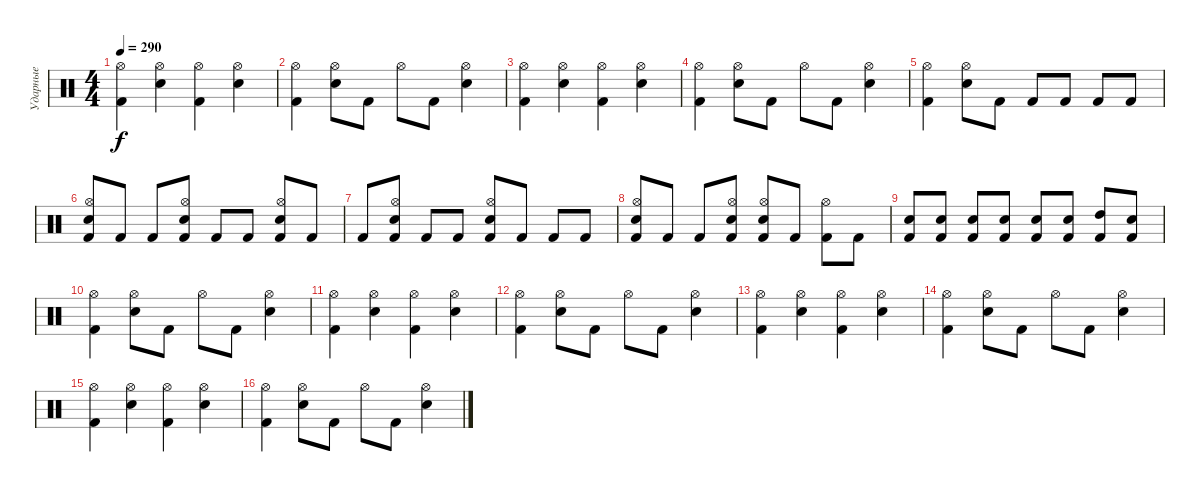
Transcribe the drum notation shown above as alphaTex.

\track ("Ударные" "Ударные") {instrument percussion}
\staff {score}
\articulation defaults
\ts (4 4)
\tempo 290
\clef neutral
\ks c
("Kick (hit) 2" "Hi-Hat (open)").4{dy f} ("Snare (hit) 2" "Hi-Hat (open)").4 ("Kick (hit) 2" "Hi-Hat (open)").4 ("Snare (hit) 2" "Hi-Hat (open)").4 |
("Kick (hit) 2" "Hi-Hat (open)").4 ("Snare (hit) 2" "Hi-Hat (open)").8 "Kick (hit) 2".8 "Hi-Hat (open)".8 "Kick (hit) 2".8 ("Snare (hit) 2" "Hi-Hat (open)").4 |
("Kick (hit) 2" "Hi-Hat (open)").4 ("Snare (hit) 2" "Hi-Hat (open)").4 ("Kick (hit) 2" "Hi-Hat (open)").4 ("Snare (hit) 2" "Hi-Hat (open)").4 |
("Kick (hit) 2" "Hi-Hat (open)").4 ("Snare (hit) 2" "Hi-Hat (open)").8 "Kick (hit) 2".8 "Hi-Hat (open)".8 "Kick (hit) 2".8 ("Snare (hit) 2" "Hi-Hat (open)").4 |
("Kick (hit) 2" "Hi-Hat (open)").4 ("Snare (hit) 2" "Hi-Hat (open)").8 "Kick (hit) 2".8 "Kick (hit) 2".8 "Kick (hit) 2".8 "Kick (hit) 2".8 "Kick (hit) 2".8 |
("Kick (hit) 2" "Snare (hit) 2" "Hi-Hat (open)").8 "Kick (hit) 2".8 "Kick (hit) 2".8 ("Kick (hit) 2" "Snare (hit) 2" "Hi-Hat (open)").8 "Kick (hit) 2".8 "Kick (hit) 2".8 ("Kick (hit) 2" "Snare (hit) 2" "Hi-Hat (open)").8 "Kick (hit) 2".8 |
"Kick (hit) 2".8 ("Kick (hit) 2" "Snare (hit) 2" "Hi-Hat (open)").8 "Kick (hit) 2".8 "Kick (hit) 2".8 ("Kick (hit) 2" "Snare (hit) 2" "Hi-Hat (open)").8 "Kick (hit) 2".8 "Kick (hit) 2".8 "Kick (hit) 2".8 |
("Kick (hit) 2" "Snare (hit) 2" "Hi-Hat (open)").8 "Kick (hit) 2".8 "Kick (hit) 2".8 ("Kick (hit) 2" "Snare (hit) 2" "Hi-Hat (open)").8 ("Kick (hit) 2" "Snare (hit) 2" "Hi-Hat (open)").8 "Kick (hit) 2".8 ("Kick (hit) 2" "Hi-Hat (open)").8 "Kick (hit) 2".8 |
("Kick (hit) 2" "Snare (hit) 2").8 ("Kick (hit) 2" "Snare (hit) 2").8 ("Kick (hit) 2" "Snare (hit) 2").8 ("Kick (hit) 2" "Snare (hit) 2").8 ("Kick (hit) 2" "Snare (hit) 2").8 ("Kick (hit) 2" "Snare (hit) 2").8 ("Kick (hit) 2" "High Tom (hit)").8 ("Kick (hit) 2" "Snare (hit) 2").8 |
("Kick (hit) 2" "Hi-Hat (open)").4 ("Snare (hit) 2" "Hi-Hat (open)").8 "Kick (hit) 2".8 "Hi-Hat (open)".8 "Kick (hit) 2".8 ("Snare (hit) 2" "Hi-Hat (open)").4 |
("Kick (hit) 2" "Hi-Hat (open)").4 ("Snare (hit) 2" "Hi-Hat (open)").4 ("Kick (hit) 2" "Hi-Hat (open)").4 ("Snare (hit) 2" "Hi-Hat (open)").4 |
("Kick (hit) 2" "Hi-Hat (open)").4 ("Snare (hit) 2" "Hi-Hat (open)").8 "Kick (hit) 2".8 "Hi-Hat (open)".8 "Kick (hit) 2".8 ("Snare (hit) 2" "Hi-Hat (open)").4 |
("Kick (hit) 2" "Hi-Hat (open)").4 ("Snare (hit) 2" "Hi-Hat (open)").4 ("Kick (hit) 2" "Hi-Hat (open)").4 ("Snare (hit) 2" "Hi-Hat (open)").4 |
("Kick (hit) 2" "Hi-Hat (open)").4 ("Snare (hit) 2" "Hi-Hat (open)").8 "Kick (hit) 2".8 "Hi-Hat (open)".8 "Kick (hit) 2".8 ("Snare (hit) 2" "Hi-Hat (open)").4 |
("Kick (hit) 2" "Hi-Hat (open)").4 ("Snare (hit) 2" "Hi-Hat (open)").4 ("Kick (hit) 2" "Hi-Hat (open)").4 ("Snare (hit) 2" "Hi-Hat (open)").4 |
("Kick (hit) 2" "Hi-Hat (open)").4 ("Snare (hit) 2" "Hi-Hat (open)").8 "Kick (hit) 2".8 "Hi-Hat (open)".8 "Kick (hit) 2".8 ("Snare (hit) 2" "Hi-Hat (open)").4
